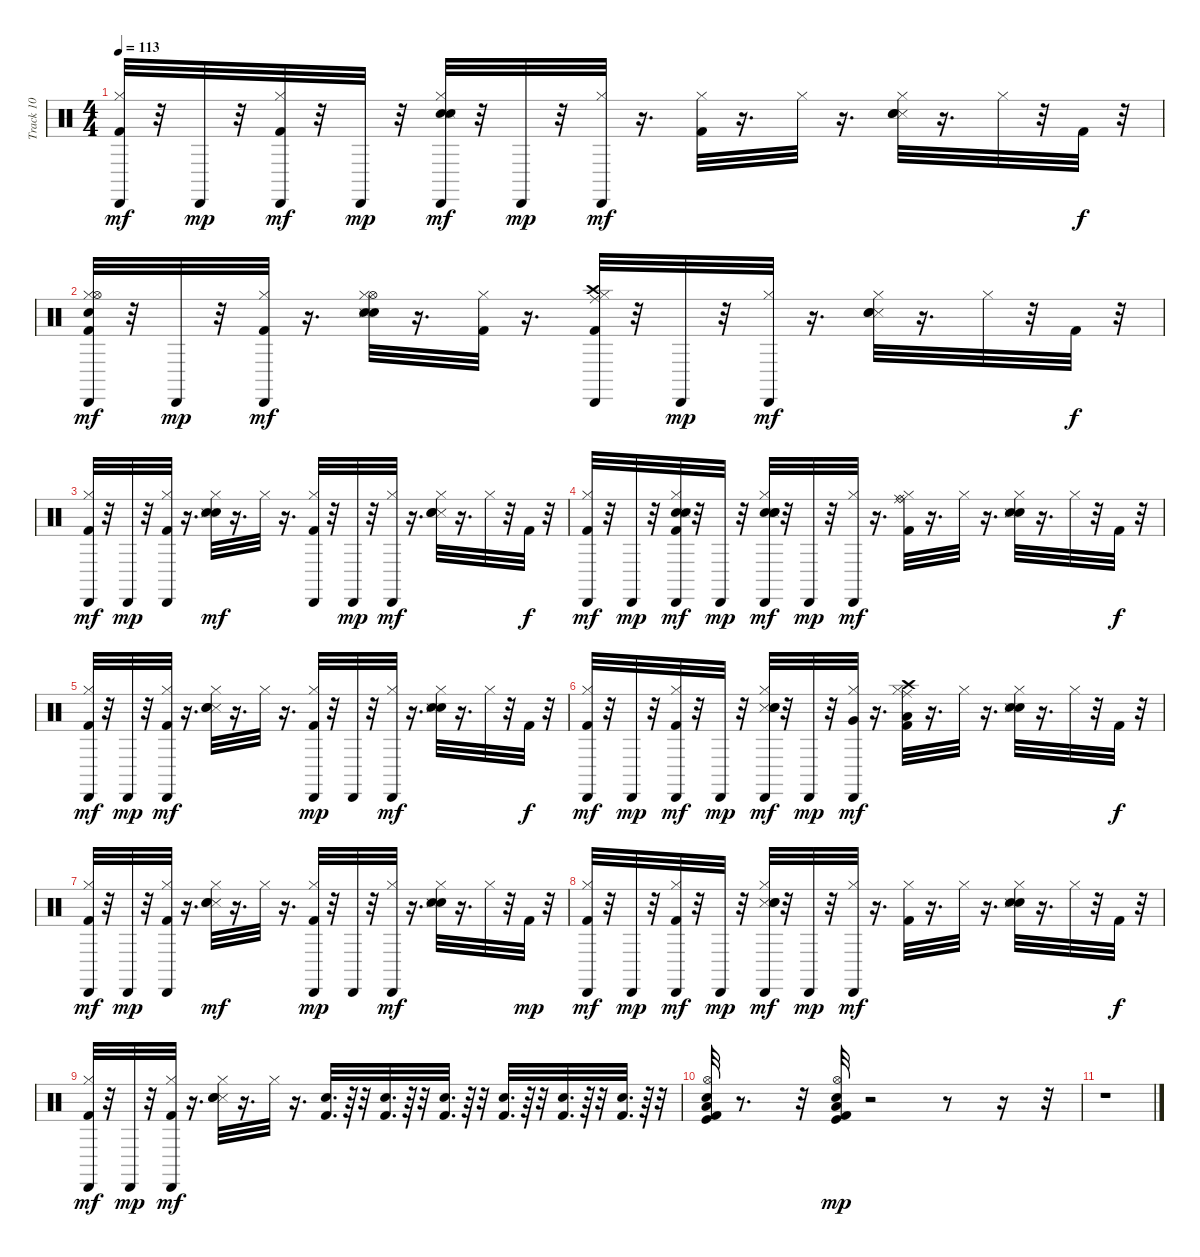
\track ("Track 10" "Track 10") {instrument percussion}
\staff {score}
\articulation defaults
\ts (4 4)
\tempo 113
\clef neutral
\ks c
("Cabasa (hit)" "Hi-Hat (closed)" "Kick (hit) 2").32{dy mf} r.32 "Cabasa (hit)".32{dy mp} r.32 ("Cabasa (hit)" "Kick (hit) 2" "Hi-Hat (closed)").32{dy mf} r.32 "Cabasa (hit)".32{dy mp} r.32 ("Hand Clap (hit)" "Snare (side stick) 3" "Cabasa (hit)" "Hi-Hat (closed)" "Snare (hit) 2").32{dy mf} r.32 "Cabasa (hit)".32{dy mp} r.32 ("Cabasa (hit)" "Hi-Hat (closed)").32{dy mf} r.16{d} ("Kick (hit) 2" "Hi-Hat (closed)").32 r.16{d} "Hi-Hat (closed)".32 r.16{d} ("Snare (side stick) 3" "Hand Clap (hit)" "Hi-Hat (closed)" "Snare (hit) 2").32 r.16{d} "Hi-Hat (closed)".32 r.32 "Kick (hit) 2".32{dy f} r.32 |
("Cabasa (hit)" "Hi-Hat (closed)" "Kick (hit) 2" "Snare (hit) 2" "Hi-Hat (open)").32{dy mf} r.32 "Cabasa (hit)".32{dy mp} r.32 ("Cabasa (hit)" "Kick (hit) 2" "Hi-Hat (closed)").32{dy mf} r.16{d} ("Hi-Hat (open)" "Hand Clap (hit)" "Snare (hit) 2" "Hi-Hat (closed)" "Snare (side stick) 3").32 r.16{d} ("Kick (hit) 2" "Hi-Hat (closed)").32 r.16{d} ("Cabasa (hit)" "Crash high (hit)" "Ride (middle)" "Hi-Hat (closed)" "Kick (hit) 2").32 r.32 "Cabasa (hit)".32{dy mp} r.32 ("Cabasa (hit)" "Hi-Hat (closed)").32{dy mf} r.16{d} ("Snare (side stick) 3" "Hand Clap (hit)" "Hi-Hat (closed)" "Snare (hit) 2").32 r.16{d} "Hi-Hat (closed)".32 r.32 "Kick (hit) 2".32{dy f} r.32 |
("Cabasa (hit)" "Hi-Hat (closed)" "Kick (hit) 2").32{dy mf} r.32 "Cabasa (hit)".32{dy mp} r.32 ("Hi-Hat (closed)" "Kick (hit) 2" "Cabasa (hit)").32 r.16{d} ("Hand Clap (hit)" "Snare (side stick) 3" "Hi-Hat (closed)" "Snare (hit) 2").32{dy mf} r.16{d} "Hi-Hat (closed)".32 r.16{d} ("Cabasa (hit)" "Hi-Hat (closed)" "Kick (hit) 2").32 r.32 "Cabasa (hit)".32{dy mp} r.32 ("Cabasa (hit)" "Hi-Hat (closed)").32{dy mf} r.16{d} ("Snare (side stick) 3" "Hand Clap (hit)" "Hi-Hat (closed)" "Snare (hit) 2").32 r.16{d} "Hi-Hat (closed)".32 r.32 "Kick (hit) 2".32{dy f} r.32 |
("Cabasa (hit)" "Hi-Hat (closed)" "Kick (hit) 2").32{dy mf} r.32 "Cabasa (hit)".32{dy mp} r.32 ("Cabasa (hit)" "Hand Clap (hit)" "Snare (side stick) 3" "Hi-Hat (closed)" "Hand Clap (hit)" "Kick (hit) 2").32{dy mf} r.32 "Cabasa (hit)".32{dy mp} r.32 ("Cabasa (hit)" "Hand Clap (hit)" "Snare (side stick) 3" "Hi-Hat (closed)" "Hand Clap (hit)" "Snare (hit) 2").32{dy mf} r.32 "Cabasa (hit)".32{dy mp} r.32 ("Cabasa (hit)" "Hi-Hat (closed)").32{dy mf} r.16{d} ("Ride (bell)" "Ride (middle)" "Hi-Hat (closed)" "Kick (hit) 2").32 r.16{d} "Hi-Hat (closed)".32 r.16{d} ("Hand Clap (hit)" "Snare (side stick) 3" "Hi-Hat (closed)" "Snare (hit) 2").32 r.16{d} "Hi-Hat (closed)".32 r.32 "Kick (hit) 2".32{dy f} r.32 |
("Cabasa (hit)" "Hi-Hat (closed)" "Kick (hit) 2").32{dy mf} r.32 "Cabasa (hit)".32{dy mp} r.32 ("Cabasa (hit)" "Hi-Hat (closed)" "Kick (hit) 2").32{dy mf} r.16{d} ("Snare (side stick) 3" "Hand Clap (hit)" "Hi-Hat (closed)" "Snare (hit) 2").32 r.16{d} "Hi-Hat (closed)".32 r.16{d} ("Hi-Hat (closed)" "Kick (hit) 2" "Cabasa (hit)").32{dy mp} r.32 "Cabasa (hit)".32 r.32 ("Cabasa (hit)" "Hi-Hat (closed)").32{dy mf} r.16{d} ("Hand Clap (hit)" "Snare (side stick) 3" "Snare (hit) 2" "Hi-Hat (closed)").32 r.16{d} "Hi-Hat (closed)".32 r.32 "Kick (hit) 2".32{dy f} r.32 |
("Cabasa (hit)" "Hi-Hat (closed)" "Kick (hit) 2").32{dy mf} r.32 "Cabasa (hit)".32{dy mp} r.32 ("Cabasa (hit)" "Kick (hit) 2" "Hi-Hat (closed)").32{dy mf} r.32 "Cabasa (hit)".32{dy mp} r.32 ("Snare (side stick) 3" "Hand Clap (hit)" "Cabasa (hit)" "Snare (hit) 2" "Hi-Hat (closed)").32{dy mf} r.32 "Cabasa (hit)".32{dy mp} r.32 ("Cabasa (hit)" "Very Low Tom (hit)" "Hi-Hat (closed)").32{dy mf} r.16{d} ("Ride (middle)" "Low Floor Tom (hit)" "Hi-Hat (closed)" "Kick (hit) 2" "Crash high (hit)").32 r.16{d} "Hi-Hat (closed)".32 r.16{d} ("Hand Clap (hit)" "Hi-Hat (closed)" "Snare (hit) 2" "Snare (side stick) 3").32 r.16{d} "Hi-Hat (closed)".32 r.32 "Kick (hit) 2".32{dy f} r.32 |
("Cabasa (hit)" "Hi-Hat (closed)" "Kick (hit) 2").32{dy mf} r.32 "Cabasa (hit)".32{dy mp} r.32 ("Hi-Hat (closed)" "Kick (hit) 2" "Cabasa (hit)").32 r.16{d} ("Snare (side stick) 3" "Hand Clap (hit)" "Hi-Hat (closed)" "Snare (hit) 2").32{dy mf} r.16{d} "Hi-Hat (closed)".32 r.16{d} ("Hi-Hat (closed)" "Kick (hit) 2" "Cabasa (hit)").32{dy mp} r.32 "Cabasa (hit)".32 r.32 ("Cabasa (hit)" "Hi-Hat (closed)").32{dy mf} r.16{d} ("Hand Clap (hit)" "Snare (side stick) 3" "Hi-Hat (closed)" "Snare (hit) 2").32 r.16{d} "Hi-Hat (closed)".32 r.32 "Kick (hit) 2".32{dy mp} r.32 |
("Cabasa (hit)" "Hi-Hat (closed)" "Kick (hit) 2").32{dy mf} r.32 "Cabasa (hit)".32{dy mp} r.32 ("Cabasa (hit)" "Kick (hit) 2" "Hi-Hat (closed)").32{dy mf} r.32 "Cabasa (hit)".32{dy mp} r.32 ("Snare (side stick) 3" "Hand Clap (hit)" "Cabasa (hit)" "Hi-Hat (closed)" "Snare (hit) 2").32{dy mf} r.32 "Cabasa (hit)".32{dy mp} r.32 ("Cabasa (hit)" "Hi-Hat (closed)").32{dy mf} r.16{d} ("Kick (hit) 2" "Hi-Hat (closed)").32 r.16{d} "Hi-Hat (closed)".32 r.16{d} ("Hand Clap (hit)" "Snare (side stick) 3" "Hi-Hat (closed)" "Snare (hit) 2").32 r.16{d} "Hi-Hat (closed)".32 r.32 "Kick (hit) 2".32{dy f} r.32 |
("Cabasa (hit)" "Hi-Hat (closed)" "Kick (hit) 2").32{dy mf} r.32 "Cabasa (hit)".32{dy mp} r.32 ("Cabasa (hit)" "Kick (hit) 2" "Hi-Hat (closed)").32{dy mf} r.16{d} ("Snare (side stick) 3" "Hand Clap (hit)" "Snare (hit) 2" "Hi-Hat (closed)").32 r.16{d} "Hi-Hat (closed)".32 r.16{d} ("Snare (hit) 2" "Kick (hit) 2").32{d} r.64 r.32 ("Snare (hit) 2" "Kick (hit) 2").32{d} r.64 r.32 ("Snare (hit) 2" "Kick (hit) 2").32{d} r.64 r.32 ("Snare (hit) 2" "Kick (hit) 2").32{d} r.64 r.32 ("Snare (hit) 2" "Kick (hit) 2").32{d} r.64 r.32 ("Snare (hit) 2" "Kick (hit) 2").32{d} r.64 r.32 |
("Low Floor Tom (hit)" "Kick (hit)" "Snare (hit) 2" "Hi-Hat (open)" "Kick (hit) 2").32 r.8{d} r.32 ("Kick (hit)" "Snare (hit) 2" "Kick (hit) 2" "Hi-Hat (open)" "Low Floor Tom (hit)").32{dy mp} r.2 r.8 r.16 r.32 |
r.1
